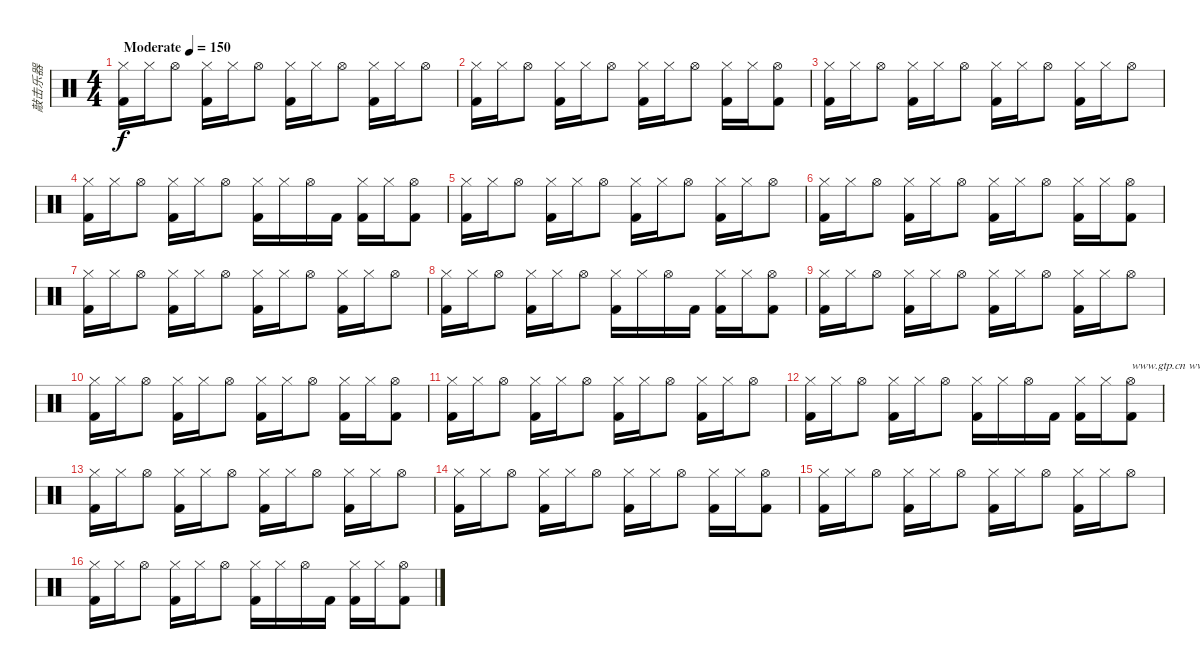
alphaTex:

\track ("敲击乐器" "敲击乐器") {instrument percussion}
\staff {score}
\articulation defaults
\ts (4 4)
\tempo (150 "Moderate")
\clef neutral
\ks c
("Hi-Hat (closed)" "Kick (hit) 2").16{dy f} "Hi-Hat (closed)".16 "Hi-Hat (open)".8 ("Hi-Hat (closed)" "Kick (hit) 2").16 "Hi-Hat (closed)".16 "Hi-Hat (open)".8 ("Hi-Hat (closed)" "Kick (hit) 2").16 "Hi-Hat (closed)".16 "Hi-Hat (open)".8 ("Hi-Hat (closed)" "Kick (hit) 2").16 "Hi-Hat (closed)".16 "Hi-Hat (open)".8 |
("Hi-Hat (closed)" "Kick (hit) 2").16 "Hi-Hat (closed)".16 "Hi-Hat (open)".8 ("Hi-Hat (closed)" "Kick (hit) 2").16 "Hi-Hat (closed)".16 "Hi-Hat (open)".8 ("Hi-Hat (closed)" "Kick (hit) 2").16 "Hi-Hat (closed)".16 "Hi-Hat (open)".8 ("Hi-Hat (closed)" "Kick (hit) 2").16 "Hi-Hat (closed)".16 ("Hi-Hat (open)" "Kick (hit) 2").8 |
("Hi-Hat (closed)" "Kick (hit) 2").16 "Hi-Hat (closed)".16 "Hi-Hat (open)".8 ("Hi-Hat (closed)" "Kick (hit) 2").16 "Hi-Hat (closed)".16 "Hi-Hat (open)".8 ("Hi-Hat (closed)" "Kick (hit) 2").16 "Hi-Hat (closed)".16 "Hi-Hat (open)".8 ("Hi-Hat (closed)" "Kick (hit) 2").16 "Hi-Hat (closed)".16 "Hi-Hat (open)".8 |
("Hi-Hat (closed)" "Kick (hit) 2").16 "Hi-Hat (closed)".16 "Hi-Hat (open)".8 ("Hi-Hat (closed)" "Kick (hit) 2").16 "Hi-Hat (closed)".16 "Hi-Hat (open)".8 ("Hi-Hat (closed)" "Kick (hit) 2").16 "Hi-Hat (closed)".16 "Hi-Hat (open)".16 "Kick (hit) 2".16 ("Hi-Hat (closed)" "Kick (hit) 2").16 "Hi-Hat (closed)".16 ("Hi-Hat (open)" "Kick (hit) 2").8 |
("Hi-Hat (closed)" "Kick (hit) 2").16 "Hi-Hat (closed)".16 "Hi-Hat (open)".8 ("Hi-Hat (closed)" "Kick (hit) 2").16 "Hi-Hat (closed)".16 "Hi-Hat (open)".8 ("Hi-Hat (closed)" "Kick (hit) 2").16 "Hi-Hat (closed)".16 "Hi-Hat (open)".8 ("Hi-Hat (closed)" "Kick (hit) 2").16 "Hi-Hat (closed)".16 "Hi-Hat (open)".8 |
("Hi-Hat (closed)" "Kick (hit) 2").16 "Hi-Hat (closed)".16 "Hi-Hat (open)".8 ("Hi-Hat (closed)" "Kick (hit) 2").16 "Hi-Hat (closed)".16 "Hi-Hat (open)".8 ("Hi-Hat (closed)" "Kick (hit) 2").16 "Hi-Hat (closed)".16 "Hi-Hat (open)".8 ("Hi-Hat (closed)" "Kick (hit) 2").16 "Hi-Hat (closed)".16 ("Hi-Hat (open)" "Kick (hit) 2").8 |
("Hi-Hat (closed)" "Kick (hit) 2").16 "Hi-Hat (closed)".16 "Hi-Hat (open)".8 ("Hi-Hat (closed)" "Kick (hit) 2").16 "Hi-Hat (closed)".16 "Hi-Hat (open)".8 ("Hi-Hat (closed)" "Kick (hit) 2").16 "Hi-Hat (closed)".16 "Hi-Hat (open)".8 ("Hi-Hat (closed)" "Kick (hit) 2").16 "Hi-Hat (closed)".16 "Hi-Hat (open)".8 |
("Hi-Hat (closed)" "Kick (hit) 2").16 "Hi-Hat (closed)".16 "Hi-Hat (open)".8 ("Hi-Hat (closed)" "Kick (hit) 2").16 "Hi-Hat (closed)".16 "Hi-Hat (open)".8 ("Hi-Hat (closed)" "Kick (hit) 2").16 "Hi-Hat (closed)".16 "Hi-Hat (open)".16 "Kick (hit) 2".16 ("Hi-Hat (closed)" "Kick (hit) 2").16 "Hi-Hat (closed)".16 ("Hi-Hat (open)" "Kick (hit) 2").8 |
("Hi-Hat (closed)" "Kick (hit) 2").16 "Hi-Hat (closed)".16 "Hi-Hat (open)".8 ("Hi-Hat (closed)" "Kick (hit) 2").16 "Hi-Hat (closed)".16 "Hi-Hat (open)".8 ("Hi-Hat (closed)" "Kick (hit) 2").16 "Hi-Hat (closed)".16 "Hi-Hat (open)".8 ("Hi-Hat (closed)" "Kick (hit) 2").16 "Hi-Hat (closed)".16 "Hi-Hat (open)".8 |
("Hi-Hat (closed)" "Kick (hit) 2").16 "Hi-Hat (closed)".16 "Hi-Hat (open)".8 ("Hi-Hat (closed)" "Kick (hit) 2").16 "Hi-Hat (closed)".16 "Hi-Hat (open)".8 ("Hi-Hat (closed)" "Kick (hit) 2").16 "Hi-Hat (closed)".16 "Hi-Hat (open)".8 ("Hi-Hat (closed)" "Kick (hit) 2").16 "Hi-Hat (closed)".16 ("Hi-Hat (open)" "Kick (hit) 2").8 |
("Hi-Hat (closed)" "Kick (hit) 2").16 "Hi-Hat (closed)".16 "Hi-Hat (open)".8 ("Hi-Hat (closed)" "Kick (hit) 2").16 "Hi-Hat (closed)".16 "Hi-Hat (open)".8 ("Hi-Hat (closed)" "Kick (hit) 2").16 "Hi-Hat (closed)".16 "Hi-Hat (open)".8 ("Hi-Hat (closed)" "Kick (hit) 2").16 "Hi-Hat (closed)".16 "Hi-Hat (open)".8 |
("Hi-Hat (closed)" "Kick (hit) 2").16 "Hi-Hat (closed)".16 "Hi-Hat (open)".8 ("Hi-Hat (closed)" "Kick (hit) 2").16 "Hi-Hat (closed)".16 "Hi-Hat (open)".8 ("Hi-Hat (closed)" "Kick (hit) 2").16 "Hi-Hat (closed)".16 "Hi-Hat (open)".16 "Kick (hit) 2".16 ("Hi-Hat (closed)" "Kick (hit) 2").16 "Hi-Hat (closed)".16 ("Hi-Hat (open)" "Kick (hit) 2").8{txt "www.gtp.cn www.51gtp.com联合为您提供优秀的GTP!"} |
("Hi-Hat (closed)" "Kick (hit) 2").16 "Hi-Hat (closed)".16 "Hi-Hat (open)".8 ("Hi-Hat (closed)" "Kick (hit) 2").16 "Hi-Hat (closed)".16 "Hi-Hat (open)".8 ("Hi-Hat (closed)" "Kick (hit) 2").16 "Hi-Hat (closed)".16 "Hi-Hat (open)".8 ("Hi-Hat (closed)" "Kick (hit) 2").16 "Hi-Hat (closed)".16 "Hi-Hat (open)".8 |
("Hi-Hat (closed)" "Kick (hit) 2").16 "Hi-Hat (closed)".16 "Hi-Hat (open)".8 ("Hi-Hat (closed)" "Kick (hit) 2").16 "Hi-Hat (closed)".16 "Hi-Hat (open)".8 ("Hi-Hat (closed)" "Kick (hit) 2").16 "Hi-Hat (closed)".16 "Hi-Hat (open)".8 ("Hi-Hat (closed)" "Kick (hit) 2").16 "Hi-Hat (closed)".16 ("Hi-Hat (open)" "Kick (hit) 2").8 |
("Hi-Hat (closed)" "Kick (hit) 2").16 "Hi-Hat (closed)".16 "Hi-Hat (open)".8 ("Hi-Hat (closed)" "Kick (hit) 2").16 "Hi-Hat (closed)".16 "Hi-Hat (open)".8 ("Hi-Hat (closed)" "Kick (hit) 2").16 "Hi-Hat (closed)".16 "Hi-Hat (open)".8 ("Hi-Hat (closed)" "Kick (hit) 2").16 "Hi-Hat (closed)".16 "Hi-Hat (open)".8 |
("Hi-Hat (closed)" "Kick (hit) 2").16 "Hi-Hat (closed)".16 "Hi-Hat (open)".8 ("Hi-Hat (closed)" "Kick (hit) 2").16 "Hi-Hat (closed)".16 "Hi-Hat (open)".8 ("Hi-Hat (closed)" "Kick (hit) 2").16 "Hi-Hat (closed)".16 "Hi-Hat (open)".16 "Kick (hit) 2".16 ("Hi-Hat (closed)" "Kick (hit) 2").16 "Hi-Hat (closed)".16 ("Hi-Hat (open)" "Kick (hit) 2").8
